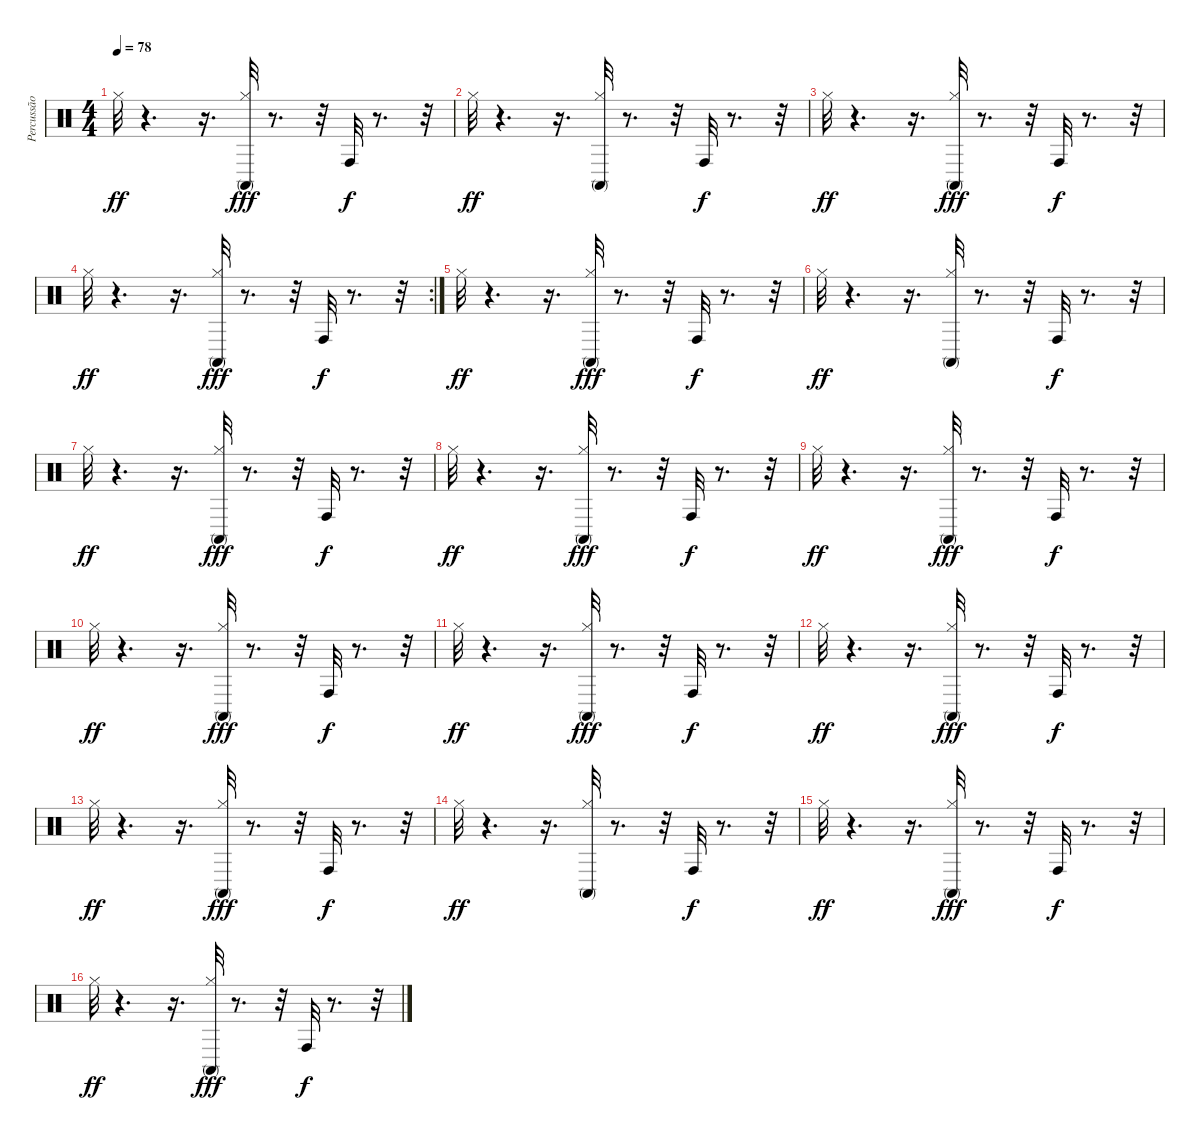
\track ("Percussão" "Percussão") {instrument percussion}
\staff {score}
\articulation defaults
\ts (4 4)
\tempo 78
\clef neutral
\ks c "Hi-Hat (closed)".32{dy ff}
r.4{d} r.16{d} ("Hi-Hat (closed)" "Conga high (mute)").32{dy fff} r.8{d} r.32 "Conga high (hit)".32{dy f} r.8{d} r.32 |
"Hi-Hat (closed)".32{dy ff} r.4{d} r.16{d} ("Conga high (mute)" "Hi-Hat (closed)").32 r.8{d} r.32 "Conga high (hit)".32{dy f} r.8{d} r.32 |
"Hi-Hat (closed)".32{dy ff} r.4{d} r.16{d} ("Hi-Hat (closed)" "Conga high (mute)").32{dy fff} r.8{d} r.32 "Conga high (hit)".32{dy f} r.8{d} r.32 |
\rc 2 "Hi-Hat (closed)".32{dy ff}
r.4{d} r.16{d} ("Hi-Hat (closed)" "Conga high (mute)").32{dy fff} r.8{d} r.32 "Conga high (hit)".32{dy f} r.8{d} r.32 |
"Hi-Hat (closed)".32{dy ff} r.4{d} r.16{d} ("Hi-Hat (closed)" "Conga high (mute)").32{dy fff} r.8{d} r.32 "Conga high (hit)".32{dy f} r.8{d} r.32 |
"Hi-Hat (closed)".32{dy ff} r.4{d} r.16{d} ("Conga high (mute)" "Hi-Hat (closed)").32 r.8{d} r.32 "Conga high (hit)".32{dy f} r.8{d} r.32 |
"Hi-Hat (closed)".32{dy ff} r.4{d} r.16{d} ("Hi-Hat (closed)" "Conga high (mute)").32{dy fff} r.8{d} r.32 "Conga high (hit)".32{dy f} r.8{d} r.32 |
"Hi-Hat (closed)".32{dy ff} r.4{d} r.16{d} ("Hi-Hat (closed)" "Conga high (mute)").32{dy fff} r.8{d} r.32 "Conga high (hit)".32{dy f} r.8{d} r.32 |
"Hi-Hat (closed)".32{dy ff} r.4{d} r.16{d} ("Hi-Hat (closed)" "Conga high (mute)").32{dy fff} r.8{d} r.32 "Conga high (hit)".32{dy f} r.8{d} r.32 |
"Hi-Hat (closed)".32{dy ff} r.4{d} r.16{d} ("Hi-Hat (closed)" "Conga high (mute)").32{dy fff} r.8{d} r.32 "Conga high (hit)".32{dy f} r.8{d} r.32 |
"Hi-Hat (closed)".32{dy ff} r.4{d} r.16{d} ("Hi-Hat (closed)" "Conga high (mute)").32{dy fff} r.8{d} r.32 "Conga high (hit)".32{dy f} r.8{d} r.32 |
"Hi-Hat (closed)".32{dy ff} r.4{d} r.16{d} ("Hi-Hat (closed)" "Conga high (mute)").32{dy fff} r.8{d} r.32 "Conga high (hit)".32{dy f} r.8{d} r.32 |
"Hi-Hat (closed)".32{dy ff} r.4{d} r.16{d} ("Hi-Hat (closed)" "Conga high (mute)").32{dy fff} r.8{d} r.32 "Conga high (hit)".32{dy f} r.8{d} r.32 |
"Hi-Hat (closed)".32{dy ff} r.4{d} r.16{d} ("Conga high (mute)" "Hi-Hat (closed)").32 r.8{d} r.32 "Conga high (hit)".32{dy f} r.8{d} r.32 |
"Hi-Hat (closed)".32{dy ff} r.4{d} r.16{d} ("Hi-Hat (closed)" "Conga high (mute)").32{dy fff} r.8{d} r.32 "Conga high (hit)".32{dy f} r.8{d} r.32 |
"Hi-Hat (closed)".32{dy ff} r.4{d} r.16{d} ("Hi-Hat (closed)" "Conga high (mute)").32{dy fff} r.8{d} r.32 "Conga high (hit)".32{dy f} r.8{d} r.32
